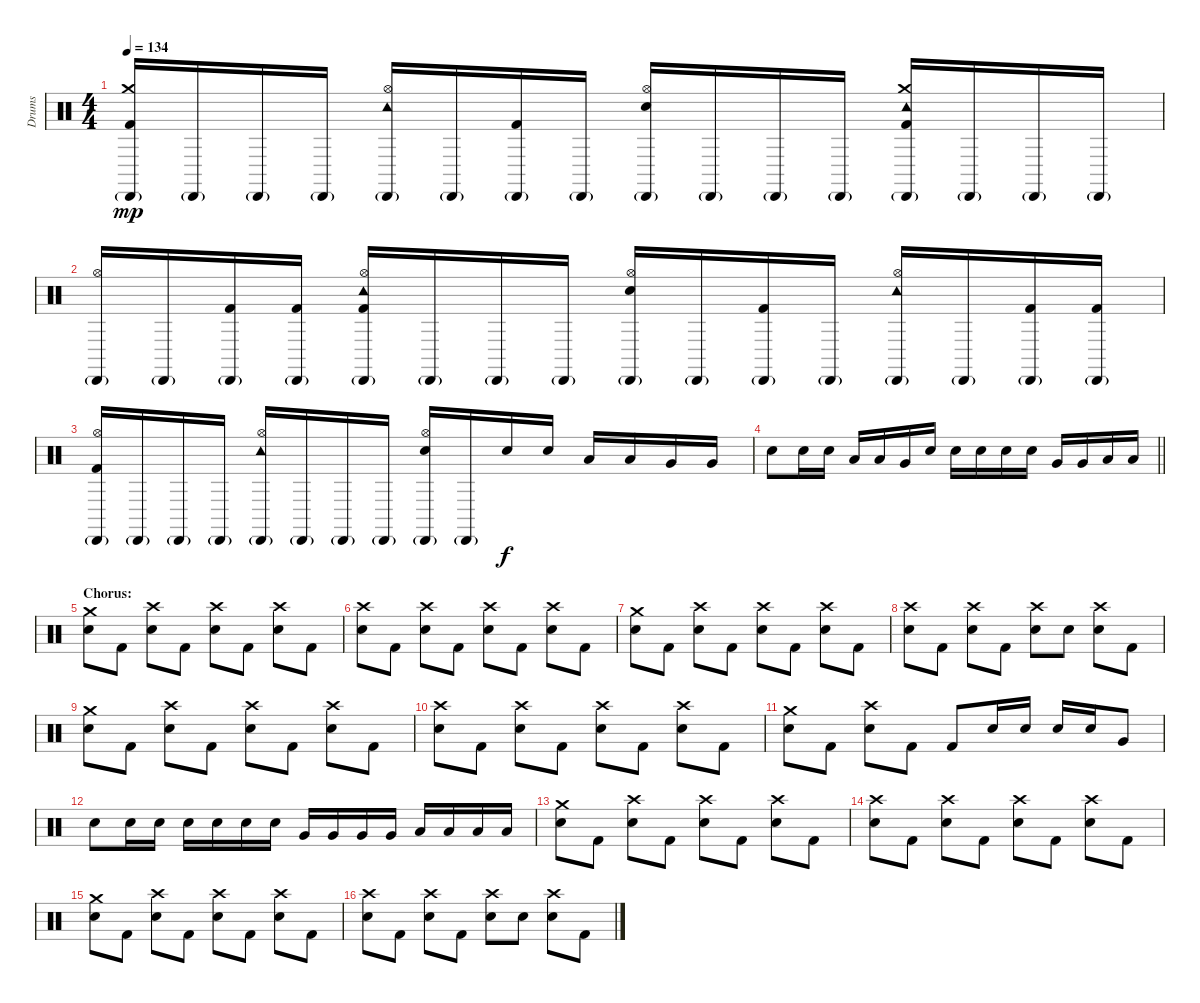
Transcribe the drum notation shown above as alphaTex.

\track ("Drums" "Drums") {instrument percussion}
\staff {score}
\articulation defaults
\ts (4 4)
\tempo 134
\clef neutral
\ks c
("Cabasa (hit)"{g} "Crash medium (hit)" "Kick (hit) 2").16{dy mp} "Cabasa (hit)"{g}.16 "Cabasa (hit)"{g}.16 "Cabasa (hit)"{g}.16 ("Tambourine (hit)" "Cabasa (hit)"{g} "Hi-Hat (open)").16 "Cabasa (hit)"{g}.16 ("Cabasa (hit)"{g} "Kick (hit) 2").16 "Cabasa (hit)"{g}.16 ("Cabasa (hit)"{g} "Hi-Hat (open)" "Electric Snare (hit)").16 "Cabasa (hit)"{g}.16 "Cabasa (hit)"{g}.16 "Cabasa (hit)"{g}.16 ("Tambourine (hit)" "Cabasa (hit)"{g} "Crash medium (hit)" "Kick (hit) 2").16 "Cabasa (hit)"{g}.16 "Cabasa (hit)"{g}.16 "Cabasa (hit)"{g}.16 |
("Cabasa (hit)"{g} "Hi-Hat (open)").16 "Cabasa (hit)"{g}.16 ("Cabasa (hit)"{g} "Kick (hit) 2").16 ("Cabasa (hit)"{g} "Kick (hit) 2").16 ("Tambourine (hit)" "Cabasa (hit)"{g} "Hi-Hat (open)" "Kick (hit) 2").16 "Cabasa (hit)"{g}.16 "Cabasa (hit)"{g}.16 "Cabasa (hit)"{g}.16 ("Cabasa (hit)"{g} "Hi-Hat (open)" "Electric Snare (hit)").16 "Cabasa (hit)"{g}.16 ("Cabasa (hit)"{g} "Kick (hit) 2").16 "Cabasa (hit)"{g}.16 ("Tambourine (hit)" "Cabasa (hit)"{g} "Hi-Hat (open)").16 "Cabasa (hit)"{g}.16 ("Cabasa (hit)"{g} "Kick (hit) 2").16 ("Cabasa (hit)"{g} "Kick (hit) 2").16 |
("Cabasa (hit)"{g} "Hi-Hat (open)" "Kick (hit) 2").16 "Cabasa (hit)"{g}.16 "Cabasa (hit)"{g}.16 "Cabasa (hit)"{g}.16 ("Tambourine (hit)" "Cabasa (hit)"{g} "Hi-Hat (open)").16 "Cabasa (hit)"{g}.16 "Cabasa (hit)"{g}.16 "Cabasa (hit)"{g}.16 ("Cabasa (hit)"{g} "Hi-Hat (open)" "Electric Snare (hit)").16 "Cabasa (hit)"{g}.16 "Electric Snare (hit)".16{dy f} "Electric Snare (hit)".16 "Low Tom (hit)".16 "Low Tom (hit)".16 "Very Low Tom (hit)".16 "Very Low Tom (hit)".16 |
\barLineRight lightlight "Electric Snare (hit)".8 "Electric Snare (hit)".16 "Electric Snare (hit)".16 "Low Tom (hit)".16 "Low Tom (hit)".16 "Very Low Tom (hit)".16 "Electric Snare (hit)".16 "Electric Snare (hit)".16 "Electric Snare (hit)".16 "Electric Snare (hit)".16 "Electric Snare (hit)".16 "Very Low Tom (hit)".16 "Very Low Tom (hit)".16 "Low Floor Tom (hit)".16 "Low Floor Tom (hit)".16
|
\section ("" "Chorus:")
("Crash medium (hit)" "Electric Snare (hit)").8 "Kick (hit) 2".8 ("Crash high (hit)" "Electric Snare (hit)").8 "Kick (hit) 2".8 ("Crash high (hit)" "Electric Snare (hit)").8 "Kick (hit) 2".8 ("Crash high (hit)" "Electric Snare (hit)").8 "Kick (hit) 2".8 |
("Crash high (hit)" "Electric Snare (hit)").8 "Kick (hit) 2".8 ("Crash high (hit)" "Electric Snare (hit)").8 "Kick (hit) 2".8 ("Crash high (hit)" "Electric Snare (hit)").8 "Kick (hit) 2".8 ("Crash high (hit)" "Electric Snare (hit)").8 "Kick (hit) 2".8 |
("Crash medium (hit)" "Electric Snare (hit)").8 "Kick (hit) 2".8 ("Crash high (hit)" "Electric Snare (hit)").8 "Kick (hit) 2".8 ("Crash high (hit)" "Electric Snare (hit)").8 "Kick (hit) 2".8 ("Crash high (hit)" "Electric Snare (hit)").8 "Kick (hit) 2".8 |
("Crash high (hit)" "Electric Snare (hit)").8 "Kick (hit) 2".8 ("Crash high (hit)" "Electric Snare (hit)").8 "Kick (hit) 2".8 ("Crash high (hit)" "Electric Snare (hit)").8 "Electric Snare (hit)".8 ("Crash high (hit)" "Electric Snare (hit)").8 "Kick (hit) 2".8 |
("Crash medium (hit)" "Electric Snare (hit)").8 "Kick (hit) 2".8 ("Crash high (hit)" "Electric Snare (hit)").8 "Kick (hit) 2".8 ("Crash high (hit)" "Electric Snare (hit)").8 "Kick (hit) 2".8 ("Crash high (hit)" "Electric Snare (hit)").8 "Kick (hit) 2".8 |
("Crash high (hit)" "Electric Snare (hit)").8 "Kick (hit) 2".8 ("Crash high (hit)" "Electric Snare (hit)").8 "Kick (hit) 2".8 ("Crash high (hit)" "Electric Snare (hit)").8 "Kick (hit) 2".8 ("Crash high (hit)" "Electric Snare (hit)").8 "Kick (hit) 2".8 |
("Crash medium (hit)" "Electric Snare (hit)").8 "Kick (hit) 2".8 ("Crash high (hit)" "Electric Snare (hit)").8 "Kick (hit) 2".8 "Kick (hit) 2".8 "Electric Snare (hit)".16 "Electric Snare (hit)".16 "Electric Snare (hit)".16 "Electric Snare (hit)".16 "Very Low Tom (hit)".8 |
"Electric Snare (hit)".8 "Electric Snare (hit)".16 "Electric Snare (hit)".16 "Electric Snare (hit)".16 "Electric Snare (hit)".16 "Electric Snare (hit)".16 "Electric Snare (hit)".16 "Very Low Tom (hit)".16 "Very Low Tom (hit)".16 "Very Low Tom (hit)".16 "Very Low Tom (hit)".16 "Low Floor Tom (hit)".16 "Low Floor Tom (hit)".16 "Low Floor Tom (hit)".16 "Low Floor Tom (hit)".16 |
("Crash medium (hit)" "Electric Snare (hit)").8 "Kick (hit) 2".8 ("Crash high (hit)" "Electric Snare (hit)").8 "Kick (hit) 2".8 ("Crash high (hit)" "Electric Snare (hit)").8 "Kick (hit) 2".8 ("Crash high (hit)" "Electric Snare (hit)").8 "Kick (hit) 2".8 |
("Crash high (hit)" "Electric Snare (hit)").8 "Kick (hit) 2".8 ("Crash high (hit)" "Electric Snare (hit)").8 "Kick (hit) 2".8 ("Crash high (hit)" "Electric Snare (hit)").8 "Kick (hit) 2".8 ("Crash high (hit)" "Electric Snare (hit)").8 "Kick (hit) 2".8 |
("Crash medium (hit)" "Electric Snare (hit)").8 "Kick (hit) 2".8 ("Crash high (hit)" "Electric Snare (hit)").8 "Kick (hit) 2".8 ("Crash high (hit)" "Electric Snare (hit)").8 "Kick (hit) 2".8 ("Crash high (hit)" "Electric Snare (hit)").8 "Kick (hit) 2".8 |
("Crash high (hit)" "Electric Snare (hit)").8 "Kick (hit) 2".8 ("Crash high (hit)" "Electric Snare (hit)").8 "Kick (hit) 2".8 ("Crash high (hit)" "Electric Snare (hit)").8 "Electric Snare (hit)".8 ("Crash high (hit)" "Electric Snare (hit)").8 "Kick (hit) 2".8
